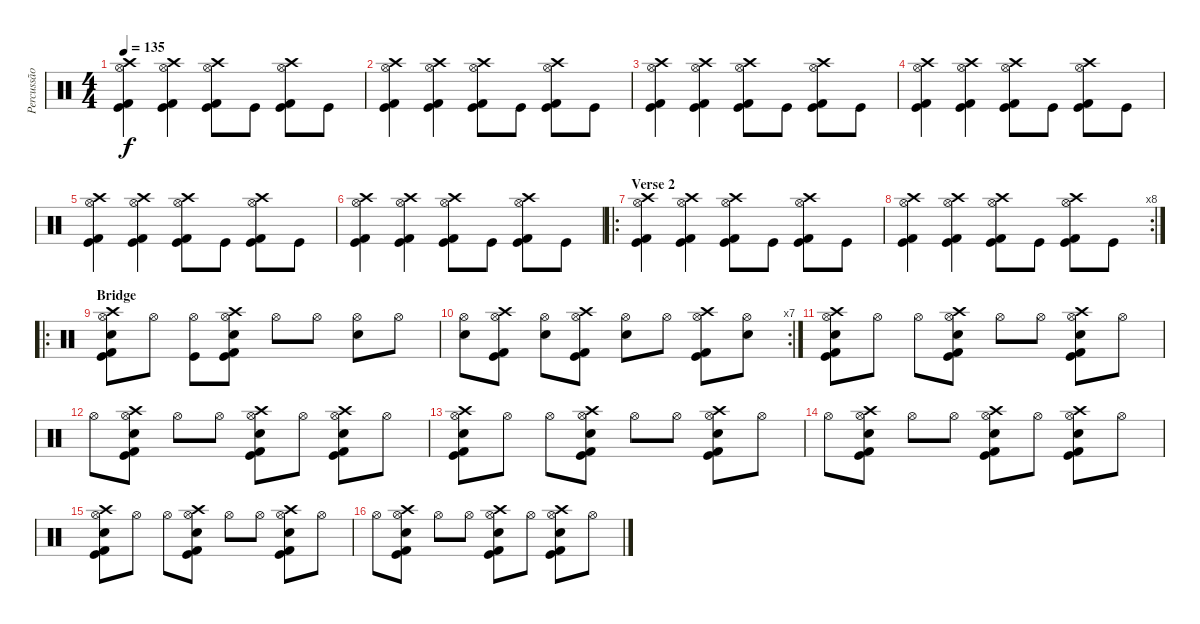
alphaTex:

\track ("Percussão" "Percussão") {instrument percussion}
\staff {score}
\articulation defaults
\ts (4 4)
\tempo 135
\clef neutral
\ks c
("Kick (hit)" "Hi-Hat (open)" "Kick (hit) 2" "Crash high (hit)").4{dy f} ("Kick (hit)" "Hi-Hat (open)" "Kick (hit) 2" "Crash high (hit)").4 ("Kick (hit)" "Hi-Hat (open)" "Kick (hit) 2" "Crash high (hit)").8 "Kick (hit)".8 ("Kick (hit)" "Hi-Hat (open)" "Kick (hit) 2" "Crash high (hit)").8 "Kick (hit)".8 |
("Kick (hit)" "Hi-Hat (open)" "Kick (hit) 2" "Crash high (hit)").4 ("Kick (hit)" "Hi-Hat (open)" "Kick (hit) 2" "Crash high (hit)").4 ("Kick (hit)" "Hi-Hat (open)" "Kick (hit) 2" "Crash high (hit)").8 "Kick (hit)".8 ("Kick (hit)" "Hi-Hat (open)" "Kick (hit) 2" "Crash high (hit)").8 "Kick (hit)".8 |
("Kick (hit)" "Hi-Hat (open)" "Kick (hit) 2" "Crash high (hit)").4 ("Kick (hit)" "Hi-Hat (open)" "Kick (hit) 2" "Crash high (hit)").4 ("Kick (hit)" "Hi-Hat (open)" "Kick (hit) 2" "Crash high (hit)").8 "Kick (hit)".8 ("Kick (hit)" "Hi-Hat (open)" "Kick (hit) 2" "Crash high (hit)").8 "Kick (hit)".8 |
("Kick (hit)" "Hi-Hat (open)" "Kick (hit) 2" "Crash high (hit)").4 ("Kick (hit)" "Hi-Hat (open)" "Kick (hit) 2" "Crash high (hit)").4 ("Kick (hit)" "Hi-Hat (open)" "Kick (hit) 2" "Crash high (hit)").8 "Kick (hit)".8 ("Kick (hit)" "Hi-Hat (open)" "Kick (hit) 2" "Crash high (hit)").8 "Kick (hit)".8 |
("Kick (hit)" "Hi-Hat (open)" "Kick (hit) 2" "Crash high (hit)").4 ("Kick (hit)" "Hi-Hat (open)" "Kick (hit) 2" "Crash high (hit)").4 ("Kick (hit)" "Hi-Hat (open)" "Kick (hit) 2" "Crash high (hit)").8 "Kick (hit)".8 ("Kick (hit)" "Hi-Hat (open)" "Kick (hit) 2" "Crash high (hit)").8 "Kick (hit)".8 |
("Kick (hit)" "Hi-Hat (open)" "Kick (hit) 2" "Crash high (hit)").4 ("Kick (hit)" "Hi-Hat (open)" "Kick (hit) 2" "Crash high (hit)").4 ("Kick (hit)" "Hi-Hat (open)" "Kick (hit) 2" "Crash high (hit)").8 "Kick (hit)".8 ("Kick (hit)" "Hi-Hat (open)" "Kick (hit) 2" "Crash high (hit)").8 "Kick (hit)".8 |
\ro
\section ("" "Verse 2")
("Kick (hit)" "Hi-Hat (open)" "Kick (hit) 2" "Crash high (hit)").4 ("Kick (hit)" "Hi-Hat (open)" "Kick (hit) 2" "Crash high (hit)").4 ("Kick (hit)" "Hi-Hat (open)" "Kick (hit) 2" "Crash high (hit)").8 "Kick (hit)".8 ("Kick (hit)" "Hi-Hat (open)" "Kick (hit) 2" "Crash high (hit)").8 "Kick (hit)".8 |
\rc 8
("Kick (hit)" "Hi-Hat (open)" "Kick (hit) 2" "Crash high (hit)").4 ("Kick (hit)" "Hi-Hat (open)" "Kick (hit) 2" "Crash high (hit)").4 ("Kick (hit)" "Hi-Hat (open)" "Kick (hit) 2" "Crash high (hit)").8 "Kick (hit)".8 ("Kick (hit)" "Hi-Hat (open)" "Kick (hit) 2" "Crash high (hit)").8 "Kick (hit)".8 |
\ro
\section ("" "Bridge")
("Kick (hit)" "Hi-Hat (open)" "Kick (hit) 2" "Electric Snare (hit)" "Crash high (hit)").8 "Hi-Hat (open)".8 ("Kick (hit)" "Hi-Hat (open)").8 ("Kick (hit)" "Hi-Hat (open)" "Kick (hit) 2" "Electric Snare (hit)" "Crash high (hit)").8 "Hi-Hat (open)".8 "Hi-Hat (open)".8 ("Hi-Hat (open)" "Electric Snare (hit)").8 "Hi-Hat (open)".8 |
\rc 7
("Hi-Hat (open)" "Electric Snare (hit)").8 ("Kick (hit)" "Hi-Hat (open)" "Kick (hit) 2" "Crash high (hit)").8 ("Hi-Hat (open)" "Electric Snare (hit)").8 ("Kick (hit)" "Hi-Hat (open)" "Kick (hit) 2" "Crash high (hit)").8 ("Hi-Hat (open)" "Electric Snare (hit)").8 "Hi-Hat (open)".8 ("Kick (hit)" "Hi-Hat (open)" "Kick (hit) 2" "Crash high (hit)").8 ("Hi-Hat (open)" "Electric Snare (hit)").8 |
("Kick (hit)" "Hi-Hat (open)" "Kick (hit) 2" "Electric Snare (hit)" "Crash high (hit)").8 "Hi-Hat (open)".8 "Hi-Hat (open)".8 ("Kick (hit)" "Hi-Hat (open)" "Kick (hit) 2" "Electric Snare (hit)" "Crash high (hit)").8 "Hi-Hat (open)".8 "Hi-Hat (open)".8 ("Kick (hit)" "Hi-Hat (open)" "Kick (hit) 2" "Electric Snare (hit)" "Crash high (hit)").8 "Hi-Hat (open)".8 |
"Hi-Hat (open)".8 ("Kick (hit)" "Hi-Hat (open)" "Kick (hit) 2" "Electric Snare (hit)" "Crash high (hit)").8 "Hi-Hat (open)".8 "Hi-Hat (open)".8 ("Kick (hit)" "Hi-Hat (open)" "Kick (hit) 2" "Electric Snare (hit)" "Crash high (hit)").8 "Hi-Hat (open)".8 ("Kick (hit)" "Hi-Hat (open)" "Kick (hit) 2" "Electric Snare (hit)" "Crash high (hit)").8 "Hi-Hat (open)".8 |
("Kick (hit)" "Hi-Hat (open)" "Kick (hit) 2" "Electric Snare (hit)" "Crash high (hit)").8 "Hi-Hat (open)".8 "Hi-Hat (open)".8 ("Kick (hit)" "Hi-Hat (open)" "Kick (hit) 2" "Electric Snare (hit)" "Crash high (hit)").8 "Hi-Hat (open)".8 "Hi-Hat (open)".8 ("Kick (hit)" "Hi-Hat (open)" "Kick (hit) 2" "Electric Snare (hit)" "Crash high (hit)").8 "Hi-Hat (open)".8 |
"Hi-Hat (open)".8 ("Kick (hit)" "Hi-Hat (open)" "Kick (hit) 2" "Electric Snare (hit)" "Crash high (hit)").8 "Hi-Hat (open)".8 "Hi-Hat (open)".8 ("Kick (hit)" "Hi-Hat (open)" "Kick (hit) 2" "Electric Snare (hit)" "Crash high (hit)").8 "Hi-Hat (open)".8 ("Kick (hit)" "Hi-Hat (open)" "Kick (hit) 2" "Electric Snare (hit)" "Crash high (hit)").8 "Hi-Hat (open)".8 |
("Kick (hit)" "Hi-Hat (open)" "Kick (hit) 2" "Electric Snare (hit)" "Crash high (hit)").8 "Hi-Hat (open)".8 "Hi-Hat (open)".8 ("Kick (hit)" "Hi-Hat (open)" "Kick (hit) 2" "Electric Snare (hit)" "Crash high (hit)").8 "Hi-Hat (open)".8 "Hi-Hat (open)".8 ("Kick (hit)" "Hi-Hat (open)" "Kick (hit) 2" "Electric Snare (hit)" "Crash high (hit)").8 "Hi-Hat (open)".8 |
"Hi-Hat (open)".8 ("Kick (hit)" "Hi-Hat (open)" "Kick (hit) 2" "Electric Snare (hit)" "Crash high (hit)").8 "Hi-Hat (open)".8 "Hi-Hat (open)".8 ("Kick (hit)" "Hi-Hat (open)" "Kick (hit) 2" "Electric Snare (hit)" "Crash high (hit)").8 "Hi-Hat (open)".8 ("Kick (hit)" "Hi-Hat (open)" "Kick (hit) 2" "Electric Snare (hit)" "Crash high (hit)").8 "Hi-Hat (open)".8
